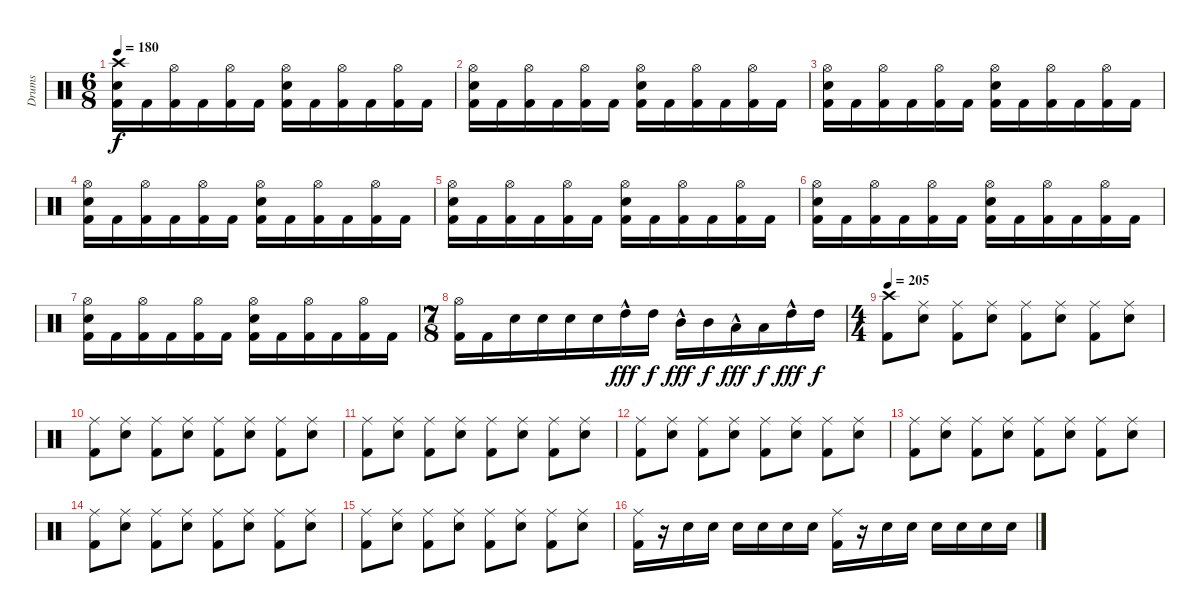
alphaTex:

\track ("Drums" "Drums") {instrument percussion}
\staff {score}
\articulation defaults
\ts (6 8)
\tempo 180
\clef neutral
\ks c
("Kick (hit) 2" "Electric Snare (hit)" "Crash high (hit)").16{dy f} "Kick (hit) 2".16 ("Kick (hit) 2" "Hi-Hat (open)").16 "Kick (hit) 2".16 ("Kick (hit) 2" "Hi-Hat (open)").16 "Kick (hit) 2".16 ("Kick (hit) 2" "Electric Snare (hit)" "Hi-Hat (open)").16 "Kick (hit) 2".16 ("Kick (hit) 2" "Hi-Hat (open)").16 "Kick (hit) 2".16 ("Kick (hit) 2" "Hi-Hat (open)").16 "Kick (hit) 2".16 |
("Kick (hit) 2" "Electric Snare (hit)" "Hi-Hat (open)").16 "Kick (hit) 2".16 ("Kick (hit) 2" "Hi-Hat (open)").16 "Kick (hit) 2".16 ("Kick (hit) 2" "Hi-Hat (open)").16 "Kick (hit) 2".16 ("Kick (hit) 2" "Electric Snare (hit)" "Hi-Hat (open)").16 "Kick (hit) 2".16 ("Kick (hit) 2" "Hi-Hat (open)").16 "Kick (hit) 2".16 ("Kick (hit) 2" "Hi-Hat (open)").16 "Kick (hit) 2".16 |
("Kick (hit) 2" "Electric Snare (hit)" "Hi-Hat (open)").16 "Kick (hit) 2".16 ("Kick (hit) 2" "Hi-Hat (open)").16 "Kick (hit) 2".16 ("Kick (hit) 2" "Hi-Hat (open)").16 "Kick (hit) 2".16 ("Kick (hit) 2" "Electric Snare (hit)" "Hi-Hat (open)").16 "Kick (hit) 2".16 ("Kick (hit) 2" "Hi-Hat (open)").16 "Kick (hit) 2".16 ("Kick (hit) 2" "Hi-Hat (open)").16 "Kick (hit) 2".16 |
("Kick (hit) 2" "Electric Snare (hit)" "Hi-Hat (open)").16 "Kick (hit) 2".16 ("Kick (hit) 2" "Hi-Hat (open)").16 "Kick (hit) 2".16 ("Kick (hit) 2" "Hi-Hat (open)").16 "Kick (hit) 2".16 ("Kick (hit) 2" "Electric Snare (hit)" "Hi-Hat (open)").16 "Kick (hit) 2".16 ("Kick (hit) 2" "Hi-Hat (open)").16 "Kick (hit) 2".16 ("Kick (hit) 2" "Hi-Hat (open)").16 "Kick (hit) 2".16 |
("Kick (hit) 2" "Electric Snare (hit)" "Hi-Hat (open)").16 "Kick (hit) 2".16 ("Kick (hit) 2" "Hi-Hat (open)").16 "Kick (hit) 2".16 ("Kick (hit) 2" "Hi-Hat (open)").16 "Kick (hit) 2".16 ("Kick (hit) 2" "Electric Snare (hit)" "Hi-Hat (open)").16 "Kick (hit) 2".16 ("Kick (hit) 2" "Hi-Hat (open)").16 "Kick (hit) 2".16 ("Kick (hit) 2" "Hi-Hat (open)").16 "Kick (hit) 2".16 |
("Kick (hit) 2" "Electric Snare (hit)" "Hi-Hat (open)").16 "Kick (hit) 2".16 ("Kick (hit) 2" "Hi-Hat (open)").16 "Kick (hit) 2".16 ("Kick (hit) 2" "Hi-Hat (open)").16 "Kick (hit) 2".16 ("Kick (hit) 2" "Electric Snare (hit)" "Hi-Hat (open)").16 "Kick (hit) 2".16 ("Kick (hit) 2" "Hi-Hat (open)").16 "Kick (hit) 2".16 ("Kick (hit) 2" "Hi-Hat (open)").16 "Kick (hit) 2".16 |
("Kick (hit) 2" "Electric Snare (hit)" "Hi-Hat (open)").16 "Kick (hit) 2".16 ("Kick (hit) 2" "Hi-Hat (open)").16 "Kick (hit) 2".16 ("Kick (hit) 2" "Hi-Hat (open)").16 "Kick (hit) 2".16 ("Kick (hit) 2" "Electric Snare (hit)" "Hi-Hat (open)").16 "Kick (hit) 2".16 ("Kick (hit) 2" "Hi-Hat (open)").16 "Kick (hit) 2".16 ("Kick (hit) 2" "Hi-Hat (open)").16 "Kick (hit) 2".16 |
\ts (7 8)
("Kick (hit) 2" "Hi-Hat (open)").16 "Kick (hit) 2".16 "Electric Snare (hit)".16 "Electric Snare (hit)".16 "Electric Snare (hit)".16 "Electric Snare (hit)".16 "High Tom (hit)"{hac}.16{dy fff} "High Tom (hit)".16{dy f} "Mid Tom (hit)"{hac}.16{dy fff} "Mid Tom (hit)".16{dy f} "Low Tom (hit)"{hac}.16{dy fff} "Low Tom (hit)".16{dy f} "High Tom (hit)"{hac}.16{dy fff} "High Tom (hit)".16{dy f} |
\ts (4 4)
\tempo 205
("Kick (hit) 2" "Crash high (hit)").8 ("Electric Snare (hit)" "Ride (middle)").8 ("Kick (hit) 2" "Ride (middle)").8 ("Electric Snare (hit)" "Ride (middle)").8 ("Kick (hit) 2" "Ride (middle)").8 ("Electric Snare (hit)" "Ride (middle)").8 ("Kick (hit) 2" "Ride (middle)").8 ("Electric Snare (hit)" "Ride (middle)").8 |
("Kick (hit) 2" "Ride (middle)").8 ("Electric Snare (hit)" "Ride (middle)").8 ("Kick (hit) 2" "Ride (middle)").8 ("Electric Snare (hit)" "Ride (middle)").8 ("Kick (hit) 2" "Ride (middle)").8 ("Electric Snare (hit)" "Ride (middle)").8 ("Kick (hit) 2" "Ride (middle)").8 ("Electric Snare (hit)" "Ride (middle)").8 |
("Kick (hit) 2" "Ride (middle)").8 ("Electric Snare (hit)" "Ride (middle)").8 ("Kick (hit) 2" "Ride (middle)").8 ("Electric Snare (hit)" "Ride (middle)").8 ("Kick (hit) 2" "Ride (middle)").8 ("Electric Snare (hit)" "Ride (middle)").8 ("Kick (hit) 2" "Ride (middle)").8 ("Electric Snare (hit)" "Ride (middle)").8 |
("Kick (hit) 2" "Ride (middle)").8 ("Electric Snare (hit)" "Ride (middle)").8 ("Kick (hit) 2" "Ride (middle)").8 ("Electric Snare (hit)" "Ride (middle)").8 ("Kick (hit) 2" "Ride (middle)").8 ("Electric Snare (hit)" "Ride (middle)").8 ("Kick (hit) 2" "Ride (middle)").8 ("Electric Snare (hit)" "Ride (middle)").8 |
("Kick (hit) 2" "Ride (middle)").8 ("Electric Snare (hit)" "Ride (middle)").8 ("Kick (hit) 2" "Ride (middle)").8 ("Electric Snare (hit)" "Ride (middle)").8 ("Kick (hit) 2" "Ride (middle)").8 ("Electric Snare (hit)" "Ride (middle)").8 ("Kick (hit) 2" "Ride (middle)").8 ("Electric Snare (hit)" "Ride (middle)").8 |
("Kick (hit) 2" "Ride (middle)").8 ("Electric Snare (hit)" "Ride (middle)").8 ("Kick (hit) 2" "Ride (middle)").8 ("Electric Snare (hit)" "Ride (middle)").8 ("Kick (hit) 2" "Ride (middle)").8 ("Electric Snare (hit)" "Ride (middle)").8 ("Kick (hit) 2" "Ride (middle)").8 ("Electric Snare (hit)" "Ride (middle)").8 |
("Kick (hit) 2" "Ride (middle)").8 ("Electric Snare (hit)" "Ride (middle)").8 ("Kick (hit) 2" "Ride (middle)").8 ("Electric Snare (hit)" "Ride (middle)").8 ("Kick (hit) 2" "Ride (middle)").8 ("Electric Snare (hit)" "Ride (middle)").8 ("Kick (hit) 2" "Ride (middle)").8 ("Electric Snare (hit)" "Ride (middle)").8 |
("Kick (hit) 2" "Ride (middle)").16 r.16 "Electric Snare (hit)".16 "Electric Snare (hit)".16 "Electric Snare (hit)".16 "Electric Snare (hit)".16 "Electric Snare (hit)".16 "Electric Snare (hit)".16 ("Kick (hit) 2" "Ride (middle)").16 r.16 "Electric Snare (hit)".16 "Electric Snare (hit)".16 "Electric Snare (hit)".16 "Electric Snare (hit)".16 "Electric Snare (hit)".16 "Electric Snare (hit)".16
